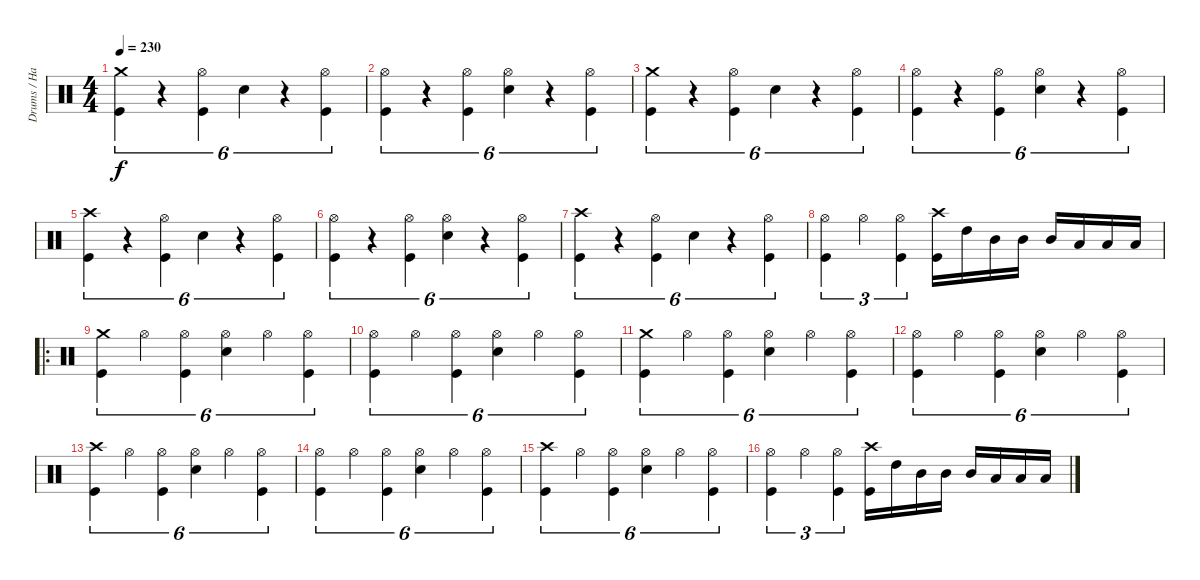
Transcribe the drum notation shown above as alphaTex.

\track ("Drums / Hammer of God" "Drums / Ha") {instrument percussion}
\staff {score}
\articulation defaults
\ts (4 4)
\tempo 230
\clef neutral
\ks c
("Kick (hit)" "Crash medium (hit)").4{tu (6 4) dy f} r.4{tu (6 4)} ("Kick (hit)" "Hi-Hat (open)").4{tu (6 4)} "Snare (hit) 2".4{tu (6 4)} r.4{tu (6 4)} ("Kick (hit)" "Hi-Hat (open)").4{tu (6 4)} |
("Kick (hit)" "Hi-Hat (open)").4{tu (6 4)} r.4{tu (6 4)} ("Kick (hit)" "Hi-Hat (open)").4{tu (6 4)} ("Snare (hit) 2" "Hi-Hat (open)").4{tu (6 4)} r.4{tu (6 4)} ("Kick (hit)" "Hi-Hat (open)").4{tu (6 4)} |
("Kick (hit)" "Crash medium (hit)").4{tu (6 4)} r.4{tu (6 4)} ("Kick (hit)" "Hi-Hat (open)").4{tu (6 4)} "Snare (hit) 2".4{tu (6 4)} r.4{tu (6 4)} ("Kick (hit)" "Hi-Hat (open)").4{tu (6 4)} |
("Kick (hit)" "Hi-Hat (open)").4{tu (6 4)} r.4{tu (6 4)} ("Kick (hit)" "Hi-Hat (open)").4{tu (6 4)} ("Snare (hit) 2" "Hi-Hat (open)").4{tu (6 4)} r.4{tu (6 4)} ("Kick (hit)" "Hi-Hat (open)").4{tu (6 4)} |
("Kick (hit)" "Crash high (hit)").4{tu (6 4)} r.4{tu (6 4)} ("Kick (hit)" "Hi-Hat (open)").4{tu (6 4)} "Snare (hit) 2".4{tu (6 4)} r.4{tu (6 4)} ("Kick (hit)" "Hi-Hat (open)").4{tu (6 4)} |
("Kick (hit)" "Hi-Hat (open)").4{tu (6 4)} r.4{tu (6 4)} ("Kick (hit)" "Hi-Hat (open)").4{tu (6 4)} ("Snare (hit) 2" "Hi-Hat (open)").4{tu (6 4)} r.4{tu (6 4)} ("Kick (hit)" "Hi-Hat (open)").4{tu (6 4)} |
("Kick (hit)" "Crash high (hit)").4{tu (6 4)} r.4{tu (6 4)} ("Kick (hit)" "Hi-Hat (open)").4{tu (6 4)} "Snare (hit) 2".4{tu (6 4)} r.4{tu (6 4)} ("Kick (hit)" "Hi-Hat (open)").4{tu (6 4)} |
("Kick (hit)" "Hi-Hat (open)").4{tu (3 2)} "Hi-Hat (open)".4{tu (3 2)} ("Kick (hit)" "Hi-Hat (open)").4{tu (3 2)} ("Kick (hit)" "Crash high (hit)").16 "High Tom (hit)".16 "Mid Tom (hit)".16 "Mid Tom (hit)".16 "Mid Tom (hit)".16 "Low Tom (hit)".16 "Low Tom (hit)".16 "Low Tom (hit)".16 |
\ro
("Kick (hit)" "Crash medium (hit)").4{tu (6 4)} "Hi-Hat (open)".4{tu (6 4)} ("Kick (hit)" "Hi-Hat (open)").4{tu (6 4)} ("Snare (hit) 2" "Hi-Hat (open)").4{tu (6 4)} "Hi-Hat (open)".4{tu (6 4)} ("Kick (hit)" "Hi-Hat (open)").4{tu (6 4)} |
("Kick (hit)" "Hi-Hat (open)").4{tu (6 4)} "Hi-Hat (open)".4{tu (6 4)} ("Kick (hit)" "Hi-Hat (open)").4{tu (6 4)} ("Snare (hit) 2" "Hi-Hat (open)").4{tu (6 4)} "Hi-Hat (open)".4{tu (6 4)} ("Kick (hit)" "Hi-Hat (open)").4{tu (6 4)} |
("Kick (hit)" "Crash medium (hit)").4{tu (6 4)} "Hi-Hat (open)".4{tu (6 4)} ("Kick (hit)" "Hi-Hat (open)").4{tu (6 4)} ("Snare (hit) 2" "Hi-Hat (open)").4{tu (6 4)} "Hi-Hat (open)".4{tu (6 4)} ("Kick (hit)" "Hi-Hat (open)").4{tu (6 4)} |
("Kick (hit)" "Hi-Hat (open)").4{tu (6 4)} "Hi-Hat (open)".4{tu (6 4)} ("Kick (hit)" "Hi-Hat (open)").4{tu (6 4)} ("Snare (hit) 2" "Hi-Hat (open)").4{tu (6 4)} "Hi-Hat (open)".4{tu (6 4)} ("Kick (hit)" "Hi-Hat (open)").4{tu (6 4)} |
("Kick (hit)" "Crash high (hit)").4{tu (6 4)} "Hi-Hat (open)".4{tu (6 4)} ("Kick (hit)" "Hi-Hat (open)").4{tu (6 4)} ("Snare (hit) 2" "Hi-Hat (open)").4{tu (6 4)} "Hi-Hat (open)".4{tu (6 4)} ("Kick (hit)" "Hi-Hat (open)").4{tu (6 4)} |
("Kick (hit)" "Hi-Hat (open)").4{tu (6 4)} "Hi-Hat (open)".4{tu (6 4)} ("Kick (hit)" "Hi-Hat (open)").4{tu (6 4)} ("Snare (hit) 2" "Hi-Hat (open)").4{tu (6 4)} "Hi-Hat (open)".4{tu (6 4)} ("Kick (hit)" "Hi-Hat (open)").4{tu (6 4)} |
("Kick (hit)" "Crash high (hit)").4{tu (6 4)} "Hi-Hat (open)".4{tu (6 4)} ("Kick (hit)" "Hi-Hat (open)").4{tu (6 4)} ("Snare (hit) 2" "Hi-Hat (open)").4{tu (6 4)} "Hi-Hat (open)".4{tu (6 4)} ("Kick (hit)" "Hi-Hat (open)").4{tu (6 4)} |
("Kick (hit)" "Hi-Hat (open)").4{tu (3 2)} "Hi-Hat (open)".4{tu (3 2)} ("Kick (hit)" "Hi-Hat (open)").4{tu (3 2)} ("Kick (hit)" "Crash high (hit)").16 "High Tom (hit)".16 "Mid Tom (hit)".16 "Mid Tom (hit)".16 "Mid Tom (hit)".16 "Low Tom (hit)".16 "Low Tom (hit)".16 "Low Tom (hit)".16
